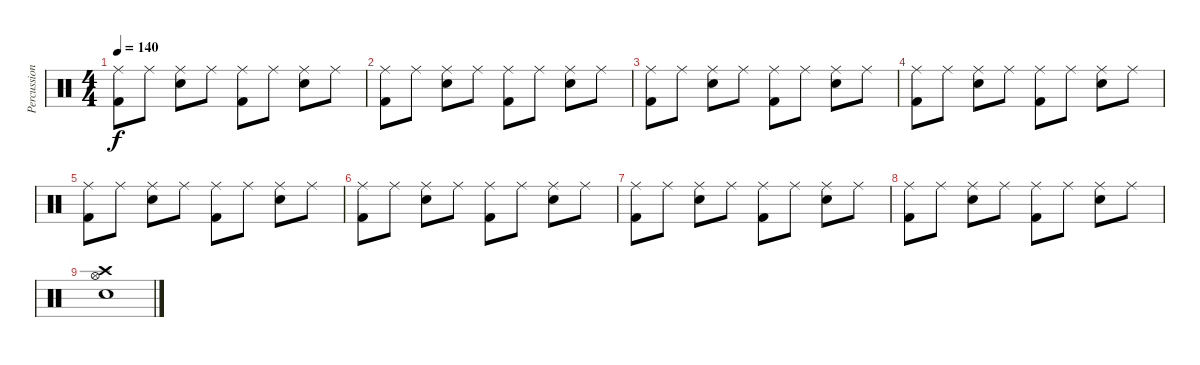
\track ("Percussion" "Percussion") {instrument percussion}
\staff {score}
\articulation defaults
\ts (4 4)
\tempo 140
\clef neutral
\ks c
("Ride (middle)" "Kick (hit) 2").8{dy f} "Ride (middle)".8 ("Ride (middle)" "Snare (hit) 2").8 "Ride (middle)".8 ("Ride (middle)" "Kick (hit) 2").8 "Ride (middle)".8 ("Ride (middle)" "Snare (hit) 2").8 "Ride (middle)".8 |
("Ride (middle)" "Kick (hit) 2").8 "Ride (middle)".8 ("Ride (middle)" "Snare (hit) 2").8 "Ride (middle)".8 ("Ride (middle)" "Kick (hit) 2").8 "Ride (middle)".8 ("Ride (middle)" "Snare (hit) 2").8 "Ride (middle)".8 |
("Ride (middle)" "Kick (hit) 2").8 "Ride (middle)".8 ("Ride (middle)" "Snare (hit) 2").8 "Ride (middle)".8 ("Ride (middle)" "Kick (hit) 2").8 "Ride (middle)".8 ("Ride (middle)" "Snare (hit) 2").8 "Ride (middle)".8 |
("Ride (middle)" "Kick (hit) 2").8 "Ride (middle)".8 ("Ride (middle)" "Snare (hit) 2").8 "Ride (middle)".8 ("Ride (middle)" "Kick (hit) 2").8 "Ride (middle)".8 ("Ride (middle)" "Snare (hit) 2").8 "Ride (middle)".8 |
("Ride (middle)" "Kick (hit) 2").8 "Ride (middle)".8 ("Ride (middle)" "Snare (hit) 2").8 "Ride (middle)".8 ("Ride (middle)" "Kick (hit) 2").8 "Ride (middle)".8 ("Ride (middle)" "Snare (hit) 2").8 "Ride (middle)".8 |
("Ride (middle)" "Kick (hit) 2").8 "Ride (middle)".8 ("Ride (middle)" "Snare (hit) 2").8 "Ride (middle)".8 ("Ride (middle)" "Kick (hit) 2").8 "Ride (middle)".8 ("Ride (middle)" "Snare (hit) 2").8 "Ride (middle)".8 |
("Ride (middle)" "Kick (hit) 2").8 "Ride (middle)".8 ("Ride (middle)" "Snare (hit) 2").8 "Ride (middle)".8 ("Ride (middle)" "Kick (hit) 2").8 "Ride (middle)".8 ("Ride (middle)" "Snare (hit) 2").8 "Ride (middle)".8 |
("Ride (middle)" "Kick (hit) 2").8 "Ride (middle)".8 ("Ride (middle)" "Snare (hit) 2").8 "Ride (middle)".8 ("Ride (middle)" "Kick (hit) 2").8 "Ride (middle)".8 ("Ride (middle)" "Snare (hit) 2").8 "Ride (middle)".8 |
("Crash high (hit)" "Hi-Hat (open)" "Snare (hit) 2").1
